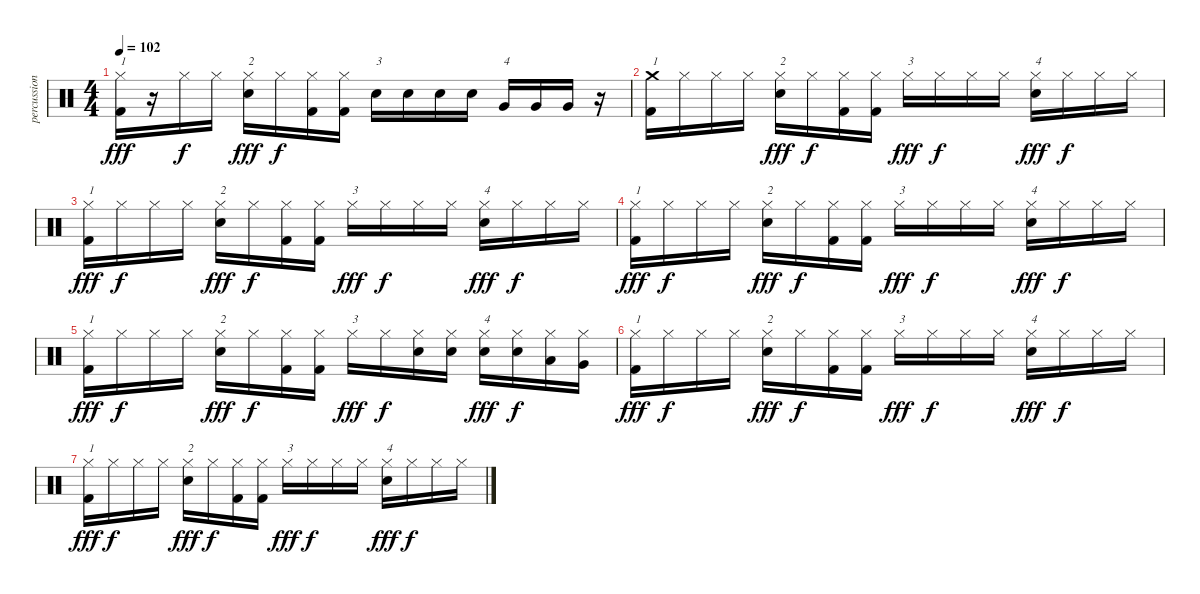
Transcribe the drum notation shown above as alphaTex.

\track ("percussion" "percussion") {instrument percussion}
\staff {score}
\articulation defaults
\ts (4 4)
\tempo 102
\clef neutral
\ks c
("Hi-Hat (closed)" "Kick (hit) 2").16{txt "1" dy fff} r.16 "Hi-Hat (closed)".16{dy f} "Hi-Hat (closed)".16 ("Snare (hit) 2" "Hi-Hat (closed)").16{txt "2" dy fff} "Hi-Hat (closed)".16{dy f} ("Hi-Hat (closed)" "Kick (hit) 2").16 ("Hi-Hat (closed)" "Kick (hit) 2").16 "Snare (hit) 2".16{txt "3"} "Snare (hit) 2".16 "Snare (hit) 2".16 "Snare (hit) 2".16 "Very Low Tom (hit)".16{txt "4"} "Very Low Tom (hit)".16 "Very Low Tom (hit)".16 r.16 |
("Crash medium (hit)" "Kick (hit) 2").16{txt "1"} "Hi-Hat (closed)".16 "Hi-Hat (closed)".16 "Hi-Hat (closed)".16 ("Snare (hit) 2" "Hi-Hat (closed)").16{txt "2" dy fff} "Hi-Hat (closed)".16{dy f} ("Hi-Hat (closed)" "Kick (hit) 2").16 ("Hi-Hat (closed)" "Kick (hit) 2").16 "Hi-Hat (closed)".16{txt "3" dy fff} "Hi-Hat (closed)".16{dy f} "Hi-Hat (closed)".16 "Hi-Hat (closed)".16 ("Snare (hit) 2" "Hi-Hat (closed)").16{txt "4" dy fff} "Hi-Hat (closed)".16{dy f} "Hi-Hat (closed)".16 "Hi-Hat (closed)".16 |
("Hi-Hat (closed)" "Kick (hit) 2").16{txt "1" dy fff} "Hi-Hat (closed)".16{dy f} "Hi-Hat (closed)".16 "Hi-Hat (closed)".16 ("Snare (hit) 2" "Hi-Hat (closed)").16{txt "2" dy fff} "Hi-Hat (closed)".16{dy f} ("Hi-Hat (closed)" "Kick (hit) 2").16 ("Hi-Hat (closed)" "Kick (hit) 2").16 "Hi-Hat (closed)".16{txt "3" dy fff} "Hi-Hat (closed)".16{dy f} "Hi-Hat (closed)".16 "Hi-Hat (closed)".16 ("Snare (hit) 2" "Hi-Hat (closed)").16{txt "4" dy fff} "Hi-Hat (closed)".16{dy f} "Hi-Hat (closed)".16 "Hi-Hat (closed)".16 |
("Hi-Hat (closed)" "Kick (hit) 2").16{txt "1" dy fff} "Hi-Hat (closed)".16{dy f} "Hi-Hat (closed)".16 "Hi-Hat (closed)".16 ("Snare (hit) 2" "Hi-Hat (closed)").16{txt "2" dy fff} "Hi-Hat (closed)".16{dy f} ("Hi-Hat (closed)" "Kick (hit) 2").16 ("Hi-Hat (closed)" "Kick (hit) 2").16 "Hi-Hat (closed)".16{txt "3" dy fff} "Hi-Hat (closed)".16{dy f} "Hi-Hat (closed)".16 "Hi-Hat (closed)".16 ("Snare (hit) 2" "Hi-Hat (closed)").16{txt "4" dy fff} "Hi-Hat (closed)".16{dy f} "Hi-Hat (closed)".16 "Hi-Hat (closed)".16 |
("Hi-Hat (closed)" "Kick (hit) 2").16{txt "1" dy fff} "Hi-Hat (closed)".16{dy f} "Hi-Hat (closed)".16 "Hi-Hat (closed)".16 ("Snare (hit) 2" "Hi-Hat (closed)").16{txt "2" dy fff} "Hi-Hat (closed)".16{dy f} ("Hi-Hat (closed)" "Kick (hit) 2").16 ("Hi-Hat (closed)" "Kick (hit) 2").16 "Hi-Hat (closed)".16{txt "3" dy fff} "Hi-Hat (closed)".16{dy f} ("Snare (hit) 2" "Hi-Hat (closed)").16 ("Snare (hit) 2" "Hi-Hat (closed)").16 ("Snare (hit) 2" "Hi-Hat (closed)").16{txt "4" dy fff} ("Snare (hit) 2" "Hi-Hat (closed)").16{dy f} ("Low Tom (hit)" "Hi-Hat (closed)").16 ("Very Low Tom (hit)" "Hi-Hat (closed)").16 |
("Hi-Hat (closed)" "Kick (hit) 2").16{txt "1" dy fff} "Hi-Hat (closed)".16{dy f} "Hi-Hat (closed)".16 "Hi-Hat (closed)".16 ("Snare (hit) 2" "Hi-Hat (closed)").16{txt "2" dy fff} "Hi-Hat (closed)".16{dy f} ("Hi-Hat (closed)" "Kick (hit) 2").16 ("Hi-Hat (closed)" "Kick (hit) 2").16 "Hi-Hat (closed)".16{txt "3" dy fff} "Hi-Hat (closed)".16{dy f} "Hi-Hat (closed)".16 "Hi-Hat (closed)".16 ("Snare (hit) 2" "Hi-Hat (closed)").16{txt "4" dy fff} "Hi-Hat (closed)".16{dy f} "Hi-Hat (closed)".16 "Hi-Hat (closed)".16 |
("Hi-Hat (closed)" "Kick (hit) 2").16{txt "1" dy fff} "Hi-Hat (closed)".16{dy f} "Hi-Hat (closed)".16 "Hi-Hat (closed)".16 ("Snare (hit) 2" "Hi-Hat (closed)").16{txt "2" dy fff} "Hi-Hat (closed)".16{dy f} ("Hi-Hat (closed)" "Kick (hit) 2").16 ("Hi-Hat (closed)" "Kick (hit) 2").16 "Hi-Hat (closed)".16{txt "3" dy fff} "Hi-Hat (closed)".16{dy f} "Hi-Hat (closed)".16 "Hi-Hat (closed)".16 ("Snare (hit) 2" "Hi-Hat (closed)").16{txt "4" dy fff} "Hi-Hat (closed)".16{dy f} "Hi-Hat (closed)".16 "Hi-Hat (closed)".16
